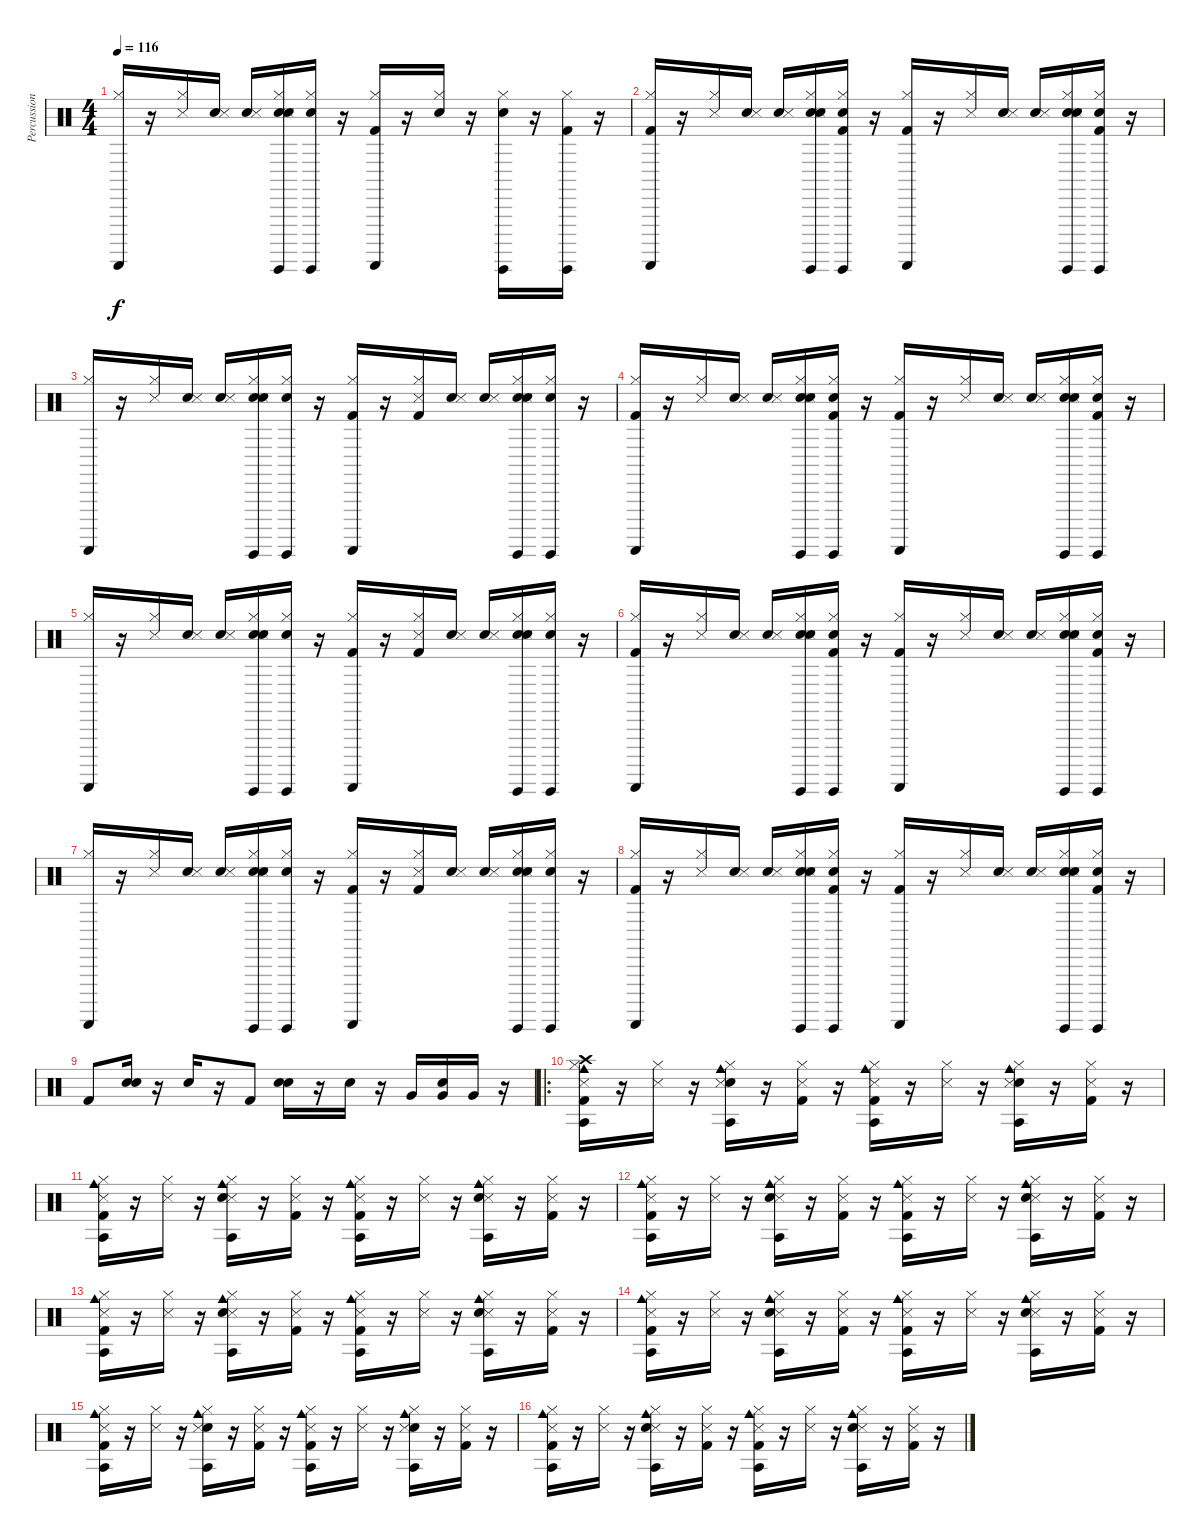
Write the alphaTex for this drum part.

\track ("Percussion" "Percussion") {instrument percussion}
\staff {score}
\articulation defaults
\ts (4 4)
\tempo 116
\clef neutral
\ks c
("Guiro (scrap-return)" "Hi-Hat (closed)").16{dy f} r.16 ("Hi-Hat (closed)" "Snare (side stick) 3").16 ("Snare (hit)" "Snare (side stick) 3").16 ("Snare (hit)" "Snare (side stick) 3").16 ("Snare (hit)" "Guiro (hit)" "Hi-Hat (closed)" "Snare (hit) 2" "Snare (side stick) 3").16 ("Snare (hit)" "Guiro (hit)" "Hi-Hat (closed)").16 r.16 ("Hi-Hat (closed)" "Kick (hit) 2" "Guiro (scrap-return)").16 r.16 ("Electric Snare (hit)" "Hi-Hat (closed)").16 r.16 ("Hi-Hat (closed)" "Electric Snare (hit)" "Guiro (hit)").16 r.16 ("Guiro (hit)" "Hi-Hat (closed)" "Kick (hit) 2").16 r.16 |
("Guiro (scrap-return)" "Hi-Hat (closed)" "Kick (hit) 2").16 r.16 ("Hi-Hat (closed)" "Snare (side stick) 3").16 ("Snare (hit)" "Snare (side stick) 3").16 ("Snare (hit)" "Snare (side stick) 3").16 ("Snare (hit)" "Guiro (hit)" "Snare (side stick) 3" "Hi-Hat (closed)" "Snare (hit) 2").16 ("Snare (hit)" "Guiro (hit)" "Hi-Hat (closed)" "Kick (hit) 2").16 r.16 ("Guiro (scrap-return)" "Hi-Hat (closed)" "Kick (hit) 2").16 r.16 ("Snare (side stick) 3" "Hi-Hat (closed)").16 ("Snare (hit)" "Snare (side stick) 3").16 ("Snare (hit)" "Snare (side stick) 3").16 ("Snare (hit)" "Snare (side stick) 3" "Guiro (hit)" "Hi-Hat (closed)" "Snare (hit) 2").16 ("Snare (hit)" "Guiro (hit)" "Hi-Hat (closed)" "Kick (hit) 2").16 r.16 |
("Guiro (scrap-return)" "Hi-Hat (closed)").16 r.16 ("Snare (side stick) 3" "Hi-Hat (closed)").16 ("Snare (hit)" "Snare (side stick) 3").16 ("Snare (hit)" "Snare (side stick) 3").16 ("Snare (hit)" "Guiro (hit)" "Hi-Hat (closed)" "Snare (side stick) 3" "Snare (hit) 2").16 ("Snare (hit)" "Guiro (hit)" "Hi-Hat (closed)").16 r.16 ("Kick (hit) 2" "Guiro (scrap-return)" "Hi-Hat (closed)").16 r.16 ("Snare (side stick) 3" "Hi-Hat (closed)" "Kick (hit) 2").16 ("Snare (hit)" "Snare (side stick) 3").16 ("Snare (hit)" "Snare (side stick) 3").16 ("Snare (hit)" "Guiro (hit)" "Hi-Hat (closed)" "Snare (side stick) 3" "Snare (hit) 2").16 ("Snare (hit)" "Guiro (hit)" "Hi-Hat (closed)").16 r.16 |
("Guiro (scrap-return)" "Hi-Hat (closed)" "Kick (hit) 2").16 r.16 ("Hi-Hat (closed)" "Snare (side stick) 3").16 ("Snare (hit)" "Snare (side stick) 3").16 ("Snare (hit)" "Snare (side stick) 3").16 ("Snare (hit)" "Guiro (hit)" "Snare (side stick) 3" "Hi-Hat (closed)" "Snare (hit) 2").16 ("Snare (hit)" "Guiro (hit)" "Hi-Hat (closed)" "Kick (hit) 2").16 r.16 ("Guiro (scrap-return)" "Hi-Hat (closed)" "Kick (hit) 2").16 r.16 ("Snare (side stick) 3" "Hi-Hat (closed)").16 ("Snare (hit)" "Snare (side stick) 3").16 ("Snare (hit)" "Snare (side stick) 3").16 ("Snare (hit)" "Snare (side stick) 3" "Guiro (hit)" "Hi-Hat (closed)" "Snare (hit) 2").16 ("Snare (hit)" "Guiro (hit)" "Hi-Hat (closed)" "Kick (hit) 2").16 r.16 |
("Guiro (scrap-return)" "Hi-Hat (closed)").16 r.16 ("Snare (side stick) 3" "Hi-Hat (closed)").16 ("Snare (hit)" "Snare (side stick) 3").16 ("Snare (hit)" "Snare (side stick) 3").16 ("Snare (hit)" "Guiro (hit)" "Hi-Hat (closed)" "Snare (side stick) 3" "Snare (hit) 2").16 ("Snare (hit)" "Guiro (hit)" "Hi-Hat (closed)").16 r.16 ("Kick (hit) 2" "Guiro (scrap-return)" "Hi-Hat (closed)").16 r.16 ("Snare (side stick) 3" "Hi-Hat (closed)" "Kick (hit) 2").16 ("Snare (hit)" "Snare (side stick) 3").16 ("Snare (hit)" "Snare (side stick) 3").16 ("Snare (hit)" "Guiro (hit)" "Hi-Hat (closed)" "Snare (side stick) 3" "Snare (hit) 2").16 ("Snare (hit)" "Guiro (hit)" "Hi-Hat (closed)").16 r.16 |
("Guiro (scrap-return)" "Hi-Hat (closed)" "Kick (hit) 2").16 r.16 ("Hi-Hat (closed)" "Snare (side stick) 3").16 ("Snare (hit)" "Snare (side stick) 3").16 ("Snare (hit)" "Snare (side stick) 3").16 ("Snare (hit)" "Guiro (hit)" "Hi-Hat (closed)" "Snare (side stick) 3" "Snare (hit) 2").16 ("Snare (hit)" "Guiro (hit)" "Hi-Hat (closed)" "Kick (hit) 2").16 r.16 ("Guiro (scrap-return)" "Hi-Hat (closed)" "Kick (hit) 2").16 r.16 ("Snare (side stick) 3" "Hi-Hat (closed)").16 ("Snare (hit)" "Snare (side stick) 3").16 ("Snare (hit)" "Snare (side stick) 3").16 ("Snare (hit)" "Snare (hit) 2" "Hi-Hat (closed)" "Guiro (hit)" "Snare (side stick) 3").16 ("Snare (hit)" "Kick (hit) 2" "Guiro (hit)" "Hi-Hat (closed)").16 r.16 |
("Hi-Hat (closed)" "Guiro (scrap-return)").16 r.16 ("Hi-Hat (closed)" "Snare (side stick) 3").16 ("Snare (hit)" "Snare (side stick) 3").16 ("Snare (hit)" "Snare (side stick) 3").16 ("Snare (hit)" "Hi-Hat (closed)" "Guiro (hit)" "Snare (side stick) 3" "Snare (hit) 2").16 ("Snare (hit)" "Hi-Hat (closed)" "Guiro (hit)").16 r.16 ("Kick (hit) 2" "Guiro (scrap-return)" "Hi-Hat (closed)").16 r.16 ("Hi-Hat (closed)" "Snare (side stick) 3" "Kick (hit) 2").16 ("Snare (hit)" "Snare (side stick) 3").16 ("Snare (hit)" "Snare (side stick) 3").16 ("Snare (hit)" "Hi-Hat (closed)" "Guiro (hit)" "Snare (side stick) 3" "Snare (hit) 2").16 ("Snare (hit)" "Hi-Hat (closed)" "Guiro (hit)").16 r.16 |
("Guiro (scrap-return)" "Hi-Hat (closed)" "Kick (hit) 2").16 r.16 ("Hi-Hat (closed)" "Snare (side stick) 3").16 ("Snare (hit)" "Snare (side stick) 3").16 ("Snare (hit)" "Snare (side stick) 3").16 ("Snare (hit)" "Guiro (hit)" "Hi-Hat (closed)" "Snare (side stick) 3" "Snare (hit) 2").16 ("Snare (hit)" "Guiro (hit)" "Hi-Hat (closed)" "Kick (hit) 2").16 r.16 ("Guiro (scrap-return)" "Hi-Hat (closed)" "Kick (hit) 2").16 r.16 ("Snare (side stick) 3" "Hi-Hat (closed)").16 ("Snare (hit)" "Snare (side stick) 3").16 ("Snare (hit)" "Snare (side stick) 3").16 ("Snare (hit)" "Snare (hit) 2" "Hi-Hat (closed)" "Guiro (hit)" "Snare (side stick) 3").16 ("Snare (hit)" "Kick (hit) 2" "Guiro (hit)" "Hi-Hat (closed)").16 r.16 |
"Kick (hit) 2".8 ("Snare (hit)" "Electric Snare (hit)").16 r.16 "Electric Snare (hit)".16 r.16 "Kick (hit) 2".8 ("Snare (hit)" "Electric Snare (hit)").16 r.16 "Electric Snare (hit)".16 r.16 "Very Low Tom (hit)".16 ("Snare (hit)" "Very Low Tom (hit)").16 "Very Low Tom (hit)".16 r.16 |
\ro
("Kick (hit) 2" "Hi-Hat (closed)" "Agogo tow (hit)" "Crash high (hit)" "Cowbell medium (hit)" "Snare (side stick) 3").16 r.16 ("Hi-Hat (closed)" "Snare (side stick) 3").16 r.16 ("Snare (hit) 2" "Hi-Hat (closed)" "Agogo tow (hit)" "Cowbell medium (hit)" "Snare (side stick) 3").16 r.16 ("Kick (hit) 2" "Hi-Hat (closed)" "Snare (side stick) 3").16 r.16 ("Kick (hit) 2" "Hi-Hat (closed)" "Agogo tow (hit)" "Cowbell medium (hit)" "Snare (side stick) 3").16 r.16 ("Hi-Hat (closed)" "Snare (side stick) 3").16 r.16 ("Snare (hit) 2" "Hi-Hat (closed)" "Agogo tow (hit)" "Cowbell medium (hit)" "Snare (side stick) 3").16 r.16 ("Kick (hit) 2" "Hi-Hat (closed)" "Snare (side stick) 3").16 r.16 |
("Cowbell medium (hit)" "Snare (side stick) 3" "Hi-Hat (closed)" "Agogo tow (hit)" "Kick (hit) 2").16 r.16 ("Snare (side stick) 3" "Hi-Hat (closed)").16 r.16 ("Cowbell medium (hit)" "Snare (side stick) 3" "Hi-Hat (closed)" "Agogo tow (hit)" "Snare (hit) 2").16 r.16 ("Snare (side stick) 3" "Hi-Hat (closed)" "Kick (hit) 2").16 r.16 ("Cowbell medium (hit)" "Snare (side stick) 3" "Hi-Hat (closed)" "Agogo tow (hit)" "Kick (hit) 2").16 r.16 ("Snare (side stick) 3" "Hi-Hat (closed)").16 r.16 ("Cowbell medium (hit)" "Snare (side stick) 3" "Hi-Hat (closed)" "Agogo tow (hit)" "Snare (hit) 2").16 r.16 ("Snare (side stick) 3" "Hi-Hat (closed)" "Kick (hit) 2").16 r.16 |
("Snare (side stick) 3" "Agogo tow (hit)" "Kick (hit) 2" "Cowbell medium (hit)" "Hi-Hat (closed)").16 r.16 ("Snare (side stick) 3" "Hi-Hat (closed)").16 r.16 ("Snare (side stick) 3" "Agogo tow (hit)" "Snare (hit) 2" "Cowbell medium (hit)" "Hi-Hat (closed)").16 r.16 ("Snare (side stick) 3" "Kick (hit) 2" "Hi-Hat (closed)").16 r.16 ("Snare (side stick) 3" "Agogo tow (hit)" "Kick (hit) 2" "Cowbell medium (hit)" "Hi-Hat (closed)").16 r.16 ("Snare (side stick) 3" "Hi-Hat (closed)").16 r.16 ("Snare (side stick) 3" "Agogo tow (hit)" "Snare (hit) 2" "Cowbell medium (hit)" "Hi-Hat (closed)").16 r.16 ("Snare (side stick) 3" "Kick (hit) 2" "Hi-Hat (closed)").16 r.16 |
("Cowbell medium (hit)" "Agogo tow (hit)" "Snare (side stick) 3" "Kick (hit) 2" "Hi-Hat (closed)").16 r.16 ("Snare (side stick) 3" "Hi-Hat (closed)").16 r.16 ("Cowbell medium (hit)" "Agogo tow (hit)" "Snare (side stick) 3" "Snare (hit) 2" "Hi-Hat (closed)").16 r.16 ("Snare (side stick) 3" "Kick (hit) 2" "Hi-Hat (closed)").16 r.16 ("Cowbell medium (hit)" "Agogo tow (hit)" "Snare (side stick) 3" "Kick (hit) 2" "Hi-Hat (closed)").16 r.16 ("Snare (side stick) 3" "Hi-Hat (closed)").16 r.16 ("Cowbell medium (hit)" "Agogo tow (hit)" "Snare (side stick) 3" "Snare (hit) 2" "Hi-Hat (closed)").16 r.16 ("Snare (side stick) 3" "Kick (hit) 2" "Hi-Hat (closed)").16 r.16 |
("Hi-Hat (closed)" "Cowbell medium (hit)" "Snare (side stick) 3" "Agogo tow (hit)" "Kick (hit) 2").16 r.16 ("Hi-Hat (closed)" "Snare (side stick) 3").16 r.16 ("Hi-Hat (closed)" "Cowbell medium (hit)" "Snare (side stick) 3" "Agogo tow (hit)" "Snare (hit) 2").16 r.16 ("Hi-Hat (closed)" "Snare (side stick) 3" "Kick (hit) 2").16 r.16 ("Hi-Hat (closed)" "Cowbell medium (hit)" "Snare (side stick) 3" "Agogo tow (hit)" "Kick (hit) 2").16 r.16 ("Hi-Hat (closed)" "Snare (side stick) 3").16 r.16 ("Hi-Hat (closed)" "Cowbell medium (hit)" "Snare (side stick) 3" "Agogo tow (hit)" "Snare (hit) 2").16 r.16 ("Hi-Hat (closed)" "Snare (side stick) 3" "Kick (hit) 2").16 r.16 |
("Kick (hit) 2" "Agogo tow (hit)" "Cowbell medium (hit)" "Snare (side stick) 3" "Hi-Hat (closed)").16 r.16 ("Snare (side stick) 3" "Hi-Hat (closed)").16 r.16 ("Snare (hit) 2" "Agogo tow (hit)" "Cowbell medium (hit)" "Snare (side stick) 3" "Hi-Hat (closed)").16 r.16 ("Kick (hit) 2" "Snare (side stick) 3" "Hi-Hat (closed)").16 r.16 ("Kick (hit) 2" "Agogo tow (hit)" "Cowbell medium (hit)" "Snare (side stick) 3" "Hi-Hat (closed)").16 r.16 ("Snare (side stick) 3" "Hi-Hat (closed)").16 r.16 ("Snare (hit) 2" "Agogo tow (hit)" "Cowbell medium (hit)" "Snare (side stick) 3" "Hi-Hat (closed)").16 r.16 ("Kick (hit) 2" "Snare (side stick) 3" "Hi-Hat (closed)").16 r.16 |
("Agogo tow (hit)" "Snare (side stick) 3" "Cowbell medium (hit)" "Hi-Hat (closed)" "Kick (hit) 2").16 r.16 ("Snare (side stick) 3" "Hi-Hat (closed)").16 r.16 ("Agogo tow (hit)" "Snare (side stick) 3" "Cowbell medium (hit)" "Hi-Hat (closed)" "Snare (hit) 2").16 r.16 ("Snare (side stick) 3" "Hi-Hat (closed)" "Kick (hit) 2").16 r.16 ("Agogo tow (hit)" "Snare (side stick) 3" "Cowbell medium (hit)" "Hi-Hat (closed)" "Kick (hit) 2").16 r.16 ("Snare (side stick) 3" "Hi-Hat (closed)").16 r.16 ("Agogo tow (hit)" "Snare (side stick) 3" "Cowbell medium (hit)" "Hi-Hat (closed)" "Snare (hit) 2").16 r.16 ("Snare (side stick) 3" "Hi-Hat (closed)" "Kick (hit) 2").16 r.16
